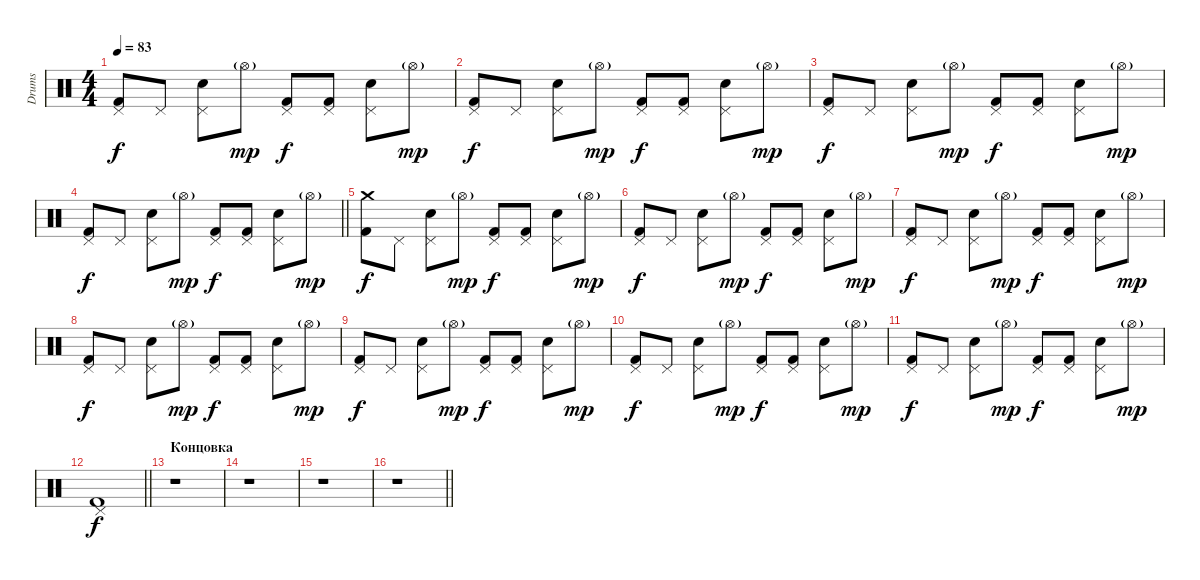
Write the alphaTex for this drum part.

\track ("Drums" "Drums") {instrument percussion}
\staff {score}
\articulation defaults
\ts (4 4)
\tempo 83
\clef neutral
\ks c
("Pedal Hi-Hat (hit)" "Kick (hit) 2").8{dy f} "Pedal Hi-Hat (hit)".8 ("Pedal Hi-Hat (hit)" "Electric Snare (hit)").8 "Hi-Hat (open)"{g}.8{dy mp} ("Pedal Hi-Hat (hit)" "Kick (hit) 2").8{dy f} ("Pedal Hi-Hat (hit)" "Kick (hit) 2").8 ("Pedal Hi-Hat (hit)" "Electric Snare (hit)").8 "Hi-Hat (open)"{g}.8{dy mp} |
("Pedal Hi-Hat (hit)" "Kick (hit) 2").8{dy f} "Pedal Hi-Hat (hit)".8 ("Pedal Hi-Hat (hit)" "Electric Snare (hit)").8 "Hi-Hat (open)"{g}.8{dy mp} ("Pedal Hi-Hat (hit)" "Kick (hit) 2").8{dy f} ("Pedal Hi-Hat (hit)" "Kick (hit) 2").8 ("Pedal Hi-Hat (hit)" "Electric Snare (hit)").8 "Hi-Hat (open)"{g}.8{dy mp} |
("Pedal Hi-Hat (hit)" "Kick (hit) 2").8{dy f} "Pedal Hi-Hat (hit)".8 ("Pedal Hi-Hat (hit)" "Electric Snare (hit)").8 "Hi-Hat (open)"{g}.8{dy mp} ("Pedal Hi-Hat (hit)" "Kick (hit) 2").8{dy f} ("Pedal Hi-Hat (hit)" "Kick (hit) 2").8 ("Pedal Hi-Hat (hit)" "Electric Snare (hit)").8 "Hi-Hat (open)"{g}.8{dy mp} |
\barLineRight lightlight
("Pedal Hi-Hat (hit)" "Kick (hit) 2").8{dy f} "Pedal Hi-Hat (hit)".8 ("Pedal Hi-Hat (hit)" "Electric Snare (hit)").8 "Hi-Hat (open)"{g}.8{dy mp} ("Pedal Hi-Hat (hit)" "Kick (hit) 2").8{dy f} ("Pedal Hi-Hat (hit)" "Kick (hit) 2").8 ("Pedal Hi-Hat (hit)" "Electric Snare (hit)").8 "Hi-Hat (open)"{g}.8{dy mp} |
\section ("" "")
("Crash medium (hit)" "Kick (hit) 2").8{dy f} "Pedal Hi-Hat (hit)".8 ("Pedal Hi-Hat (hit)" "Electric Snare (hit)").8 "Hi-Hat (open)"{g}.8{dy mp} ("Pedal Hi-Hat (hit)" "Kick (hit) 2").8{dy f} ("Pedal Hi-Hat (hit)" "Kick (hit) 2").8 ("Pedal Hi-Hat (hit)" "Electric Snare (hit)").8 "Hi-Hat (open)"{g}.8{dy mp} |
("Pedal Hi-Hat (hit)" "Kick (hit) 2").8{dy f} "Pedal Hi-Hat (hit)".8 ("Pedal Hi-Hat (hit)" "Electric Snare (hit)").8 "Hi-Hat (open)"{g}.8{dy mp} ("Pedal Hi-Hat (hit)" "Kick (hit) 2").8{dy f} ("Pedal Hi-Hat (hit)" "Kick (hit) 2").8 ("Pedal Hi-Hat (hit)" "Electric Snare (hit)").8 "Hi-Hat (open)"{g}.8{dy mp} |
("Pedal Hi-Hat (hit)" "Kick (hit) 2").8{dy f} "Pedal Hi-Hat (hit)".8 ("Pedal Hi-Hat (hit)" "Electric Snare (hit)").8 "Hi-Hat (open)"{g}.8{dy mp} ("Pedal Hi-Hat (hit)" "Kick (hit) 2").8{dy f} ("Pedal Hi-Hat (hit)" "Kick (hit) 2").8 ("Pedal Hi-Hat (hit)" "Electric Snare (hit)").8 "Hi-Hat (open)"{g}.8{dy mp} |
("Pedal Hi-Hat (hit)" "Kick (hit) 2").8{dy f} "Pedal Hi-Hat (hit)".8 ("Pedal Hi-Hat (hit)" "Electric Snare (hit)").8 "Hi-Hat (open)"{g}.8{dy mp} ("Pedal Hi-Hat (hit)" "Kick (hit) 2").8{dy f} ("Pedal Hi-Hat (hit)" "Kick (hit) 2").8 ("Pedal Hi-Hat (hit)" "Electric Snare (hit)").8 "Hi-Hat (open)"{g}.8{dy mp} |
("Pedal Hi-Hat (hit)" "Kick (hit) 2").8{dy f} "Pedal Hi-Hat (hit)".8 ("Pedal Hi-Hat (hit)" "Electric Snare (hit)").8 "Hi-Hat (open)"{g}.8{dy mp} ("Pedal Hi-Hat (hit)" "Kick (hit) 2").8{dy f} ("Pedal Hi-Hat (hit)" "Kick (hit) 2").8 ("Pedal Hi-Hat (hit)" "Electric Snare (hit)").8 "Hi-Hat (open)"{g}.8{dy mp} |
("Pedal Hi-Hat (hit)" "Kick (hit) 2").8{dy f} "Pedal Hi-Hat (hit)".8 ("Pedal Hi-Hat (hit)" "Electric Snare (hit)").8 "Hi-Hat (open)"{g}.8{dy mp} ("Pedal Hi-Hat (hit)" "Kick (hit) 2").8{dy f} ("Pedal Hi-Hat (hit)" "Kick (hit) 2").8 ("Pedal Hi-Hat (hit)" "Electric Snare (hit)").8 "Hi-Hat (open)"{g}.8{dy mp} |
("Pedal Hi-Hat (hit)" "Kick (hit) 2").8{dy f} "Pedal Hi-Hat (hit)".8 ("Pedal Hi-Hat (hit)" "Electric Snare (hit)").8 "Hi-Hat (open)"{g}.8{dy mp} ("Pedal Hi-Hat (hit)" "Kick (hit) 2").8{dy f} ("Pedal Hi-Hat (hit)" "Kick (hit) 2").8 ("Pedal Hi-Hat (hit)" "Electric Snare (hit)").8 "Hi-Hat (open)"{g}.8{dy mp} |
\barLineRight lightlight
("Pedal Hi-Hat (hit)" "Kick (hit) 2").1{dy f} |
\section ("" "Концовка")
r.1 |
r.1 |
r.1 |
\barLineRight lightlight
r.1
